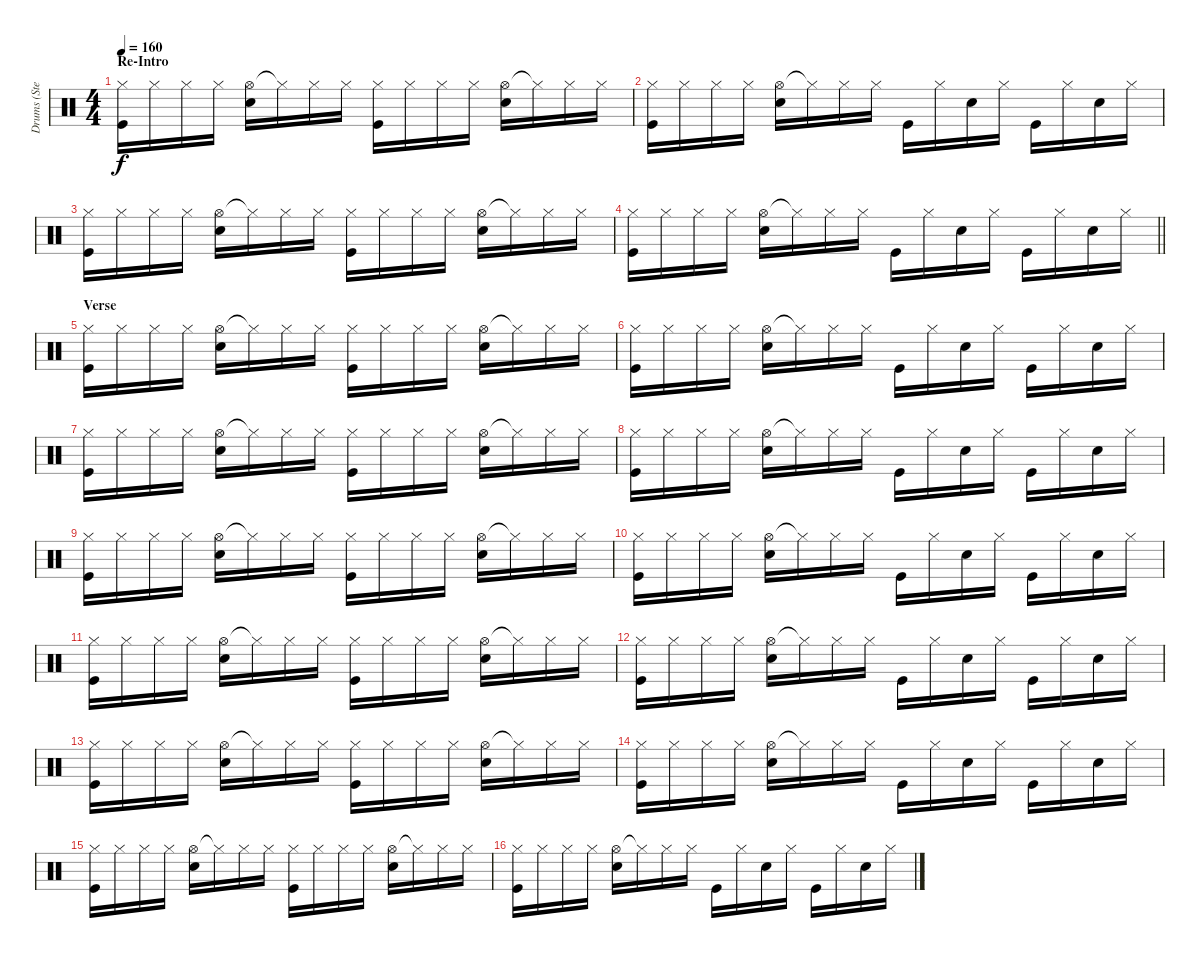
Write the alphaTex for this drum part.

\track ("Drums (Stephen Morris)" "Drums (Ste") {instrument percussion}
\staff {score}
\articulation defaults
\ts (4 4)
\section ("" "Re-Intro")
\tempo 160
\clef neutral
\ks c
("Hi-Hat (closed)" "Kick (hit)").16{dy f} "Hi-Hat (closed)".16 "Hi-Hat (closed)".16 "Hi-Hat (closed)".16 ("Hi-Hat (open)" "Electric Snare (hit)").16 "Hi-Hat (closed)"{t}.16 "Hi-Hat (closed)".16 "Hi-Hat (closed)".16 ("Hi-Hat (closed)" "Kick (hit)").16 "Hi-Hat (closed)".16 "Hi-Hat (closed)".16 "Hi-Hat (closed)".16 ("Hi-Hat (open)" "Electric Snare (hit)").16 "Hi-Hat (closed)"{t}.16 "Hi-Hat (closed)".16 "Hi-Hat (closed)".16 |
("Hi-Hat (closed)" "Kick (hit)").16 "Hi-Hat (closed)".16 "Hi-Hat (closed)".16 "Hi-Hat (closed)".16 ("Hi-Hat (open)" "Electric Snare (hit)").16 "Hi-Hat (closed)"{t}.16 "Hi-Hat (closed)".16 "Hi-Hat (closed)".16 "Kick (hit)".16 "Hi-Hat (closed)".16 "Electric Snare (hit)".16 "Hi-Hat (closed)".16 "Kick (hit)".16 "Hi-Hat (closed)".16 "Electric Snare (hit)".16 "Hi-Hat (closed)".16 |
("Hi-Hat (closed)" "Kick (hit)").16 "Hi-Hat (closed)".16 "Hi-Hat (closed)".16 "Hi-Hat (closed)".16 ("Hi-Hat (open)" "Electric Snare (hit)").16 "Hi-Hat (closed)"{t}.16 "Hi-Hat (closed)".16 "Hi-Hat (closed)".16 ("Hi-Hat (closed)" "Kick (hit)").16 "Hi-Hat (closed)".16 "Hi-Hat (closed)".16 "Hi-Hat (closed)".16 ("Hi-Hat (open)" "Electric Snare (hit)").16 "Hi-Hat (closed)"{t}.16 "Hi-Hat (closed)".16 "Hi-Hat (closed)".16 |
\barLineRight lightlight
("Hi-Hat (closed)" "Kick (hit)").16 "Hi-Hat (closed)".16 "Hi-Hat (closed)".16 "Hi-Hat (closed)".16 ("Hi-Hat (open)" "Electric Snare (hit)").16 "Hi-Hat (closed)"{t}.16 "Hi-Hat (closed)".16 "Hi-Hat (closed)".16 "Kick (hit)".16 "Hi-Hat (closed)".16 "Electric Snare (hit)".16 "Hi-Hat (closed)".16 "Kick (hit)".16 "Hi-Hat (closed)".16 "Electric Snare (hit)".16 "Hi-Hat (closed)".16 |
\section ("" "Verse")
("Hi-Hat (closed)" "Kick (hit)").16 "Hi-Hat (closed)".16 "Hi-Hat (closed)".16 "Hi-Hat (closed)".16 ("Hi-Hat (open)" "Electric Snare (hit)").16 "Hi-Hat (closed)"{t}.16 "Hi-Hat (closed)".16 "Hi-Hat (closed)".16 ("Hi-Hat (closed)" "Kick (hit)").16 "Hi-Hat (closed)".16 "Hi-Hat (closed)".16 "Hi-Hat (closed)".16 ("Hi-Hat (open)" "Electric Snare (hit)").16 "Hi-Hat (closed)"{t}.16 "Hi-Hat (closed)".16 "Hi-Hat (closed)".16 |
("Hi-Hat (closed)" "Kick (hit)").16 "Hi-Hat (closed)".16 "Hi-Hat (closed)".16 "Hi-Hat (closed)".16 ("Hi-Hat (open)" "Electric Snare (hit)").16 "Hi-Hat (closed)"{t}.16 "Hi-Hat (closed)".16 "Hi-Hat (closed)".16 "Kick (hit)".16 "Hi-Hat (closed)".16 "Electric Snare (hit)".16 "Hi-Hat (closed)".16 "Kick (hit)".16 "Hi-Hat (closed)".16 "Electric Snare (hit)".16 "Hi-Hat (closed)".16 |
("Hi-Hat (closed)" "Kick (hit)").16 "Hi-Hat (closed)".16 "Hi-Hat (closed)".16 "Hi-Hat (closed)".16 ("Hi-Hat (open)" "Electric Snare (hit)").16 "Hi-Hat (closed)"{t}.16 "Hi-Hat (closed)".16 "Hi-Hat (closed)".16 ("Hi-Hat (closed)" "Kick (hit)").16 "Hi-Hat (closed)".16 "Hi-Hat (closed)".16 "Hi-Hat (closed)".16 ("Hi-Hat (open)" "Electric Snare (hit)").16 "Hi-Hat (closed)"{t}.16 "Hi-Hat (closed)".16 "Hi-Hat (closed)".16 |
("Hi-Hat (closed)" "Kick (hit)").16 "Hi-Hat (closed)".16 "Hi-Hat (closed)".16 "Hi-Hat (closed)".16 ("Hi-Hat (open)" "Electric Snare (hit)").16 "Hi-Hat (closed)"{t}.16 "Hi-Hat (closed)".16 "Hi-Hat (closed)".16 "Kick (hit)".16 "Hi-Hat (closed)".16 "Electric Snare (hit)".16 "Hi-Hat (closed)".16 "Kick (hit)".16 "Hi-Hat (closed)".16 "Electric Snare (hit)".16 "Hi-Hat (closed)".16 |
("Hi-Hat (closed)" "Kick (hit)").16 "Hi-Hat (closed)".16 "Hi-Hat (closed)".16 "Hi-Hat (closed)".16 ("Hi-Hat (open)" "Electric Snare (hit)").16 "Hi-Hat (closed)"{t}.16 "Hi-Hat (closed)".16 "Hi-Hat (closed)".16 ("Hi-Hat (closed)" "Kick (hit)").16 "Hi-Hat (closed)".16 "Hi-Hat (closed)".16 "Hi-Hat (closed)".16 ("Hi-Hat (open)" "Electric Snare (hit)").16 "Hi-Hat (closed)"{t}.16 "Hi-Hat (closed)".16 "Hi-Hat (closed)".16 |
("Hi-Hat (closed)" "Kick (hit)").16 "Hi-Hat (closed)".16 "Hi-Hat (closed)".16 "Hi-Hat (closed)".16 ("Hi-Hat (open)" "Electric Snare (hit)").16 "Hi-Hat (closed)"{t}.16 "Hi-Hat (closed)".16 "Hi-Hat (closed)".16 "Kick (hit)".16 "Hi-Hat (closed)".16 "Electric Snare (hit)".16 "Hi-Hat (closed)".16 "Kick (hit)".16 "Hi-Hat (closed)".16 "Electric Snare (hit)".16 "Hi-Hat (closed)".16 |
("Hi-Hat (closed)" "Kick (hit)").16 "Hi-Hat (closed)".16 "Hi-Hat (closed)".16 "Hi-Hat (closed)".16 ("Hi-Hat (open)" "Electric Snare (hit)").16 "Hi-Hat (closed)"{t}.16 "Hi-Hat (closed)".16 "Hi-Hat (closed)".16 ("Hi-Hat (closed)" "Kick (hit)").16 "Hi-Hat (closed)".16 "Hi-Hat (closed)".16 "Hi-Hat (closed)".16 ("Hi-Hat (open)" "Electric Snare (hit)").16 "Hi-Hat (closed)"{t}.16 "Hi-Hat (closed)".16 "Hi-Hat (closed)".16 |
("Hi-Hat (closed)" "Kick (hit)").16 "Hi-Hat (closed)".16 "Hi-Hat (closed)".16 "Hi-Hat (closed)".16 ("Hi-Hat (open)" "Electric Snare (hit)").16 "Hi-Hat (closed)"{t}.16 "Hi-Hat (closed)".16 "Hi-Hat (closed)".16 "Kick (hit)".16 "Hi-Hat (closed)".16 "Electric Snare (hit)".16 "Hi-Hat (closed)".16 "Kick (hit)".16 "Hi-Hat (closed)".16 "Electric Snare (hit)".16 "Hi-Hat (closed)".16 |
("Hi-Hat (closed)" "Kick (hit)").16 "Hi-Hat (closed)".16 "Hi-Hat (closed)".16 "Hi-Hat (closed)".16 ("Hi-Hat (open)" "Electric Snare (hit)").16 "Hi-Hat (closed)"{t}.16 "Hi-Hat (closed)".16 "Hi-Hat (closed)".16 ("Hi-Hat (closed)" "Kick (hit)").16 "Hi-Hat (closed)".16 "Hi-Hat (closed)".16 "Hi-Hat (closed)".16 ("Hi-Hat (open)" "Electric Snare (hit)").16 "Hi-Hat (closed)"{t}.16 "Hi-Hat (closed)".16 "Hi-Hat (closed)".16 |
("Hi-Hat (closed)" "Kick (hit)").16 "Hi-Hat (closed)".16 "Hi-Hat (closed)".16 "Hi-Hat (closed)".16 ("Hi-Hat (open)" "Electric Snare (hit)").16 "Hi-Hat (closed)"{t}.16 "Hi-Hat (closed)".16 "Hi-Hat (closed)".16 "Kick (hit)".16 "Hi-Hat (closed)".16 "Electric Snare (hit)".16 "Hi-Hat (closed)".16 "Kick (hit)".16 "Hi-Hat (closed)".16 "Electric Snare (hit)".16 "Hi-Hat (closed)".16 |
("Hi-Hat (closed)" "Kick (hit)").16 "Hi-Hat (closed)".16 "Hi-Hat (closed)".16 "Hi-Hat (closed)".16 ("Hi-Hat (open)" "Electric Snare (hit)").16 "Hi-Hat (closed)"{t}.16 "Hi-Hat (closed)".16 "Hi-Hat (closed)".16 ("Hi-Hat (closed)" "Kick (hit)").16 "Hi-Hat (closed)".16 "Hi-Hat (closed)".16 "Hi-Hat (closed)".16 ("Hi-Hat (open)" "Electric Snare (hit)").16 "Hi-Hat (closed)"{t}.16 "Hi-Hat (closed)".16 "Hi-Hat (closed)".16 |
("Hi-Hat (closed)" "Kick (hit)").16 "Hi-Hat (closed)".16 "Hi-Hat (closed)".16 "Hi-Hat (closed)".16 ("Hi-Hat (open)" "Electric Snare (hit)").16 "Hi-Hat (closed)"{t}.16 "Hi-Hat (closed)".16 "Hi-Hat (closed)".16 "Kick (hit)".16 "Hi-Hat (closed)".16 "Electric Snare (hit)".16 "Hi-Hat (closed)".16 "Kick (hit)".16 "Hi-Hat (closed)".16 "Electric Snare (hit)".16 "Hi-Hat (closed)".16
